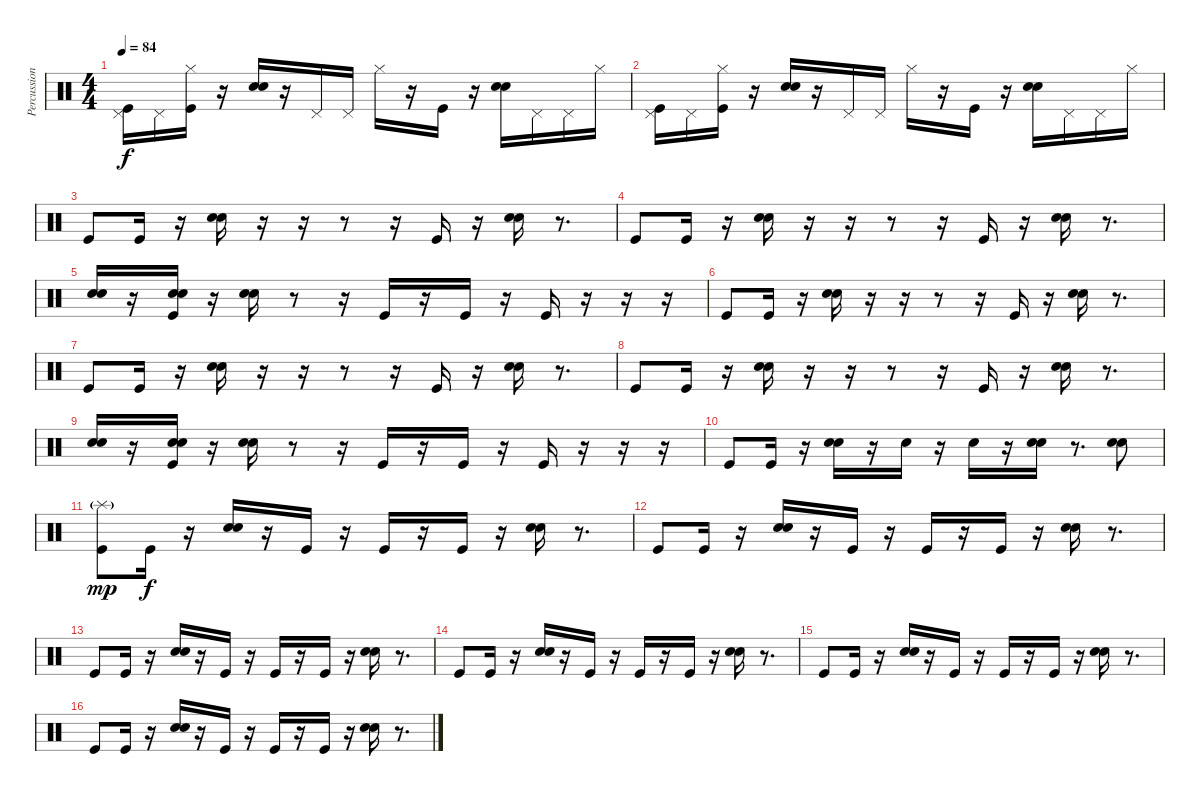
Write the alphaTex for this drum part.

\track ("Percussions" "Percussion") {instrument percussion}
\staff {score}
\articulation defaults
\ts (4 4)
\tempo 84
\clef neutral
\ks c
("Pedal Hi-Hat (hit)" "Kick (hit)").16{dy f} "Pedal Hi-Hat (hit)".16 ("Hi-Hat (closed)" "Kick (hit)").16 r.16 ("Electric Snare (hit)" "Electric Snare (hit)").16{bd 240} r.16 "Pedal Hi-Hat (hit)".16 "Pedal Hi-Hat (hit)".16 "Hi-Hat (closed)".16 r.16 "Kick (hit)".16 r.16 ("Electric Snare (hit)" "Electric Snare (hit)").16{bd 240} "Pedal Hi-Hat (hit)".16 "Pedal Hi-Hat (hit)".16 "Hi-Hat (closed)".16 |
("Pedal Hi-Hat (hit)" "Kick (hit)").16 "Pedal Hi-Hat (hit)".16 ("Hi-Hat (closed)" "Kick (hit)").16 r.16 ("Electric Snare (hit)" "Electric Snare (hit)").16{bd 240} r.16 "Pedal Hi-Hat (hit)".16 "Pedal Hi-Hat (hit)".16 "Hi-Hat (closed)".16 r.16 "Kick (hit)".16 r.16 ("Electric Snare (hit)" "Electric Snare (hit)").16{bd 240} "Pedal Hi-Hat (hit)".16 "Pedal Hi-Hat (hit)".16 "Hi-Hat (closed)".16 |
"Kick (hit)".8 "Kick (hit)".16 r.16 ("Electric Snare (hit)" "Electric Snare (hit)").16{bd 240} r.16 r.16 r.8 r.16 "Kick (hit)".16 r.16 ("Electric Snare (hit)" "Electric Snare (hit)").16{bd 240} r.8{d} |
"Kick (hit)".8 "Kick (hit)".16 r.16 ("Electric Snare (hit)" "Electric Snare (hit)").16{bd 240} r.16 r.16 r.8 r.16 "Kick (hit)".16 r.16 ("Electric Snare (hit)" "Electric Snare (hit)").16{bd 240} r.8{d} |
("Electric Snare (hit)" "Electric Snare (hit)").16{bd 240} r.16 ("Snare (hit) 2" "Electric Snare (hit)" "Kick (hit)").16 r.16 ("Electric Snare (hit)" "Electric Snare (hit)").16 r.8 r.16 "Kick (hit)".16 r.16 "Kick (hit)".16 r.16 "Kick (hit)".16 r.16 r.16 r.16 |
"Kick (hit)".8 "Kick (hit)".16 r.16 ("Electric Snare (hit)" "Electric Snare (hit)").16{bd 240} r.16 r.16 r.8 r.16 "Kick (hit)".16 r.16 ("Electric Snare (hit)" "Electric Snare (hit)").16{bd 240} r.8{d} |
"Kick (hit)".8 "Kick (hit)".16 r.16 ("Electric Snare (hit)" "Electric Snare (hit)").16{bd 240} r.16 r.16 r.8 r.16 "Kick (hit)".16 r.16 ("Electric Snare (hit)" "Electric Snare (hit)").16{bd 240} r.8{d} |
"Kick (hit)".8 "Kick (hit)".16 r.16 ("Electric Snare (hit)" "Electric Snare (hit)").16{bd 240} r.16 r.16 r.8 r.16 "Kick (hit)".16 r.16 ("Electric Snare (hit)" "Electric Snare (hit)").16{bd 240} r.8{d} |
("Electric Snare (hit)" "Electric Snare (hit)").16{bd 240} r.16 ("Snare (hit) 2" "Electric Snare (hit)" "Kick (hit)").16 r.16 ("Electric Snare (hit)" "Electric Snare (hit)").16 r.8 r.16 "Kick (hit)".16 r.16 "Kick (hit)".16 r.16 "Kick (hit)".16 r.16 r.16 r.16 |
"Kick (hit)".8 "Kick (hit)".16 r.16 ("Electric Snare (hit)" "Electric Snare (hit)").16{bd 240} r.16 "Electric Snare (hit)".16 r.16 "Electric Snare (hit)".16 r.16 ("Electric Snare (hit)" "Electric Snare (hit)").16{bd 240} r.8{d} ("Snare (hit) 2" "Electric Snare (hit)").8 |
("Splash (hit)"{g} "Kick (hit)").8{dy mp} "Kick (hit)".16{dy f} r.16 ("Electric Snare (hit)" "Electric Snare (hit)").16{bd 240} r.16 "Kick (hit)".16 r.16 "Kick (hit)".16 r.16 "Kick (hit)".16 r.16 ("Electric Snare (hit)" "Electric Snare (hit)").16{bd 240} r.8{d} |
"Kick (hit)".8 "Kick (hit)".16 r.16 ("Electric Snare (hit)" "Electric Snare (hit)").16{bd 240} r.16 "Kick (hit)".16 r.16 "Kick (hit)".16 r.16 "Kick (hit)".16 r.16 ("Electric Snare (hit)" "Electric Snare (hit)").16{bd 240} r.8{d} |
"Kick (hit)".8 "Kick (hit)".16 r.16 ("Electric Snare (hit)" "Electric Snare (hit)").16{bd 240} r.16 "Kick (hit)".16 r.16 "Kick (hit)".16 r.16 "Kick (hit)".16 r.16 ("Electric Snare (hit)" "Electric Snare (hit)").16{bd 240} r.8{d} |
"Kick (hit)".8 "Kick (hit)".16 r.16 ("Electric Snare (hit)" "Electric Snare (hit)").16{bd 240} r.16 "Kick (hit)".16 r.16 "Kick (hit)".16 r.16 "Kick (hit)".16 r.16 ("Electric Snare (hit)" "Electric Snare (hit)").16{bd 240} r.8{d} |
"Kick (hit)".8 "Kick (hit)".16 r.16 ("Electric Snare (hit)" "Electric Snare (hit)").16{bd 240} r.16 "Kick (hit)".16 r.16 "Kick (hit)".16 r.16 "Kick (hit)".16 r.16 ("Electric Snare (hit)" "Electric Snare (hit)").16{bd 240} r.8{d} |
"Kick (hit)".8 "Kick (hit)".16 r.16 ("Electric Snare (hit)" "Electric Snare (hit)").16{bd 240} r.16 "Kick (hit)".16 r.16 "Kick (hit)".16 r.16 "Kick (hit)".16 r.16 ("Electric Snare (hit)" "Electric Snare (hit)").16{bd 240} r.8{d}
